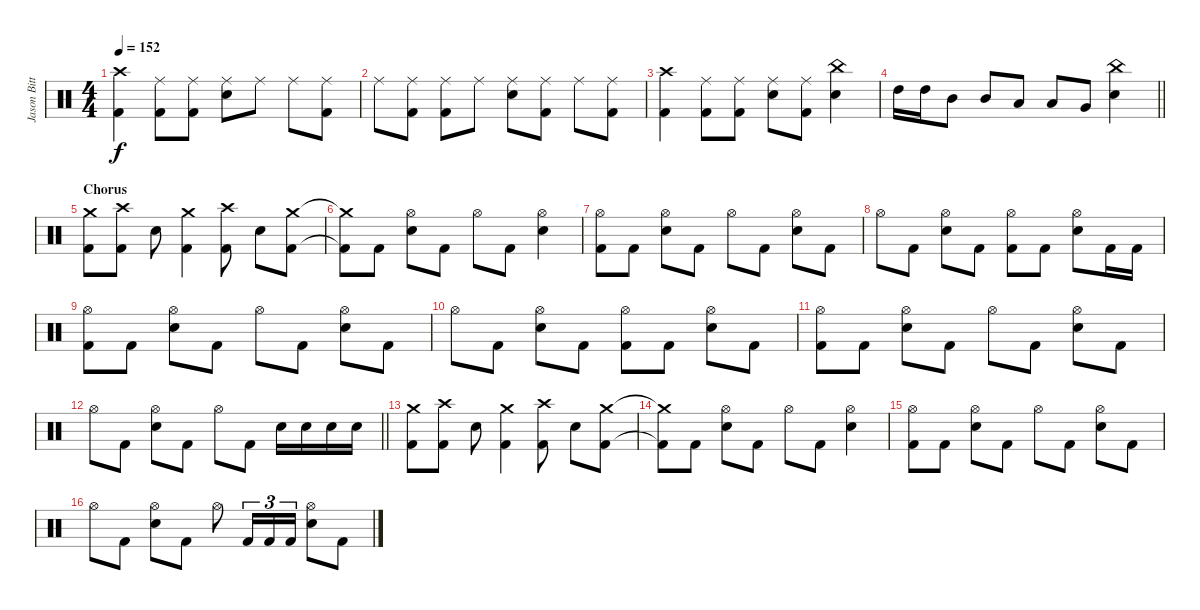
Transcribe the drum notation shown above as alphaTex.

\track ("Jason Bittner" "Jason Bitt") {instrument percussion}
\staff {score}
\articulation defaults
\ts (4 4)
\tempo 152
\clef neutral
\ks c
("Crash high (hit)" "Kick (hit) 2").4{dy f} ("Ride (middle)" "Kick (hit) 2").8 ("Ride (middle)" "Kick (hit) 2").8 ("Ride (middle)" "Electric Snare (hit)").8 "Ride (middle)".8 "Ride (middle)".8 ("Ride (middle)" "Kick (hit) 2").8 |
"Ride (middle)".8 ("Ride (middle)" "Kick (hit) 2").8 ("Ride (middle)" "Kick (hit) 2").8 "Ride (middle)".8 ("Ride (middle)" "Electric Snare (hit)").8 ("Ride (middle)" "Kick (hit) 2").8 "Ride (middle)".8 ("Ride (middle)" "Kick (hit) 2").8 |
("Crash high (hit)" "Kick (hit) 2").4 ("Ride (middle)" "Kick (hit) 2").8 ("Ride (middle)" "Kick (hit) 2").8 ("Ride (middle)" "Electric Snare (hit)").8 ("Ride (middle)" "Kick (hit) 2").8 ("China (hit)" "Electric Snare (hit)").4 |
\barLineRight lightlight "High Tom (hit)".16 "High Tom (hit)".16 "Mid Tom (hit)".8 "Mid Tom (hit)".8 "Low Tom (hit)".8 "Low Tom (hit)".8 "Very Low Tom (hit)".8
("China (hit)" "Electric Snare (hit)").4 |
\section ("" "Chorus")
("Crash medium (hit)" "Kick (hit) 2").8 ("Crash high (hit)" "Kick (hit) 2").8 "Electric Snare (hit)".8 ("Crash medium (hit)" "Kick (hit) 2").4 ("Crash high (hit)" "Kick (hit) 2").8 "Electric Snare (hit)".8 ("Crash medium (hit)" "Kick (hit) 2").8 |
("Crash medium (hit)"{t} "Kick (hit) 2"{t}).8 "Kick (hit) 2".8 ("Hi-Hat (open)" "Electric Snare (hit)").8 "Kick (hit) 2".8 "Hi-Hat (open)".8 "Kick (hit) 2".8 ("Hi-Hat (open)" "Electric Snare (hit)").4 |
("Hi-Hat (open)" "Kick (hit) 2").8 "Kick (hit) 2".8 ("Hi-Hat (open)" "Electric Snare (hit)").8 "Kick (hit) 2".8 "Hi-Hat (open)".8 "Kick (hit) 2".8 ("Hi-Hat (open)" "Electric Snare (hit)").8 "Kick (hit) 2".8 |
"Hi-Hat (open)".8 "Kick (hit) 2".8 ("Hi-Hat (open)" "Electric Snare (hit)").8 "Kick (hit) 2".8 ("Hi-Hat (open)" "Kick (hit) 2").8 "Kick (hit) 2".8 ("Hi-Hat (open)" "Electric Snare (hit)").8 "Kick (hit) 2".16 "Kick (hit) 2".16 |
("Hi-Hat (open)" "Kick (hit) 2").8 "Kick (hit) 2".8 ("Hi-Hat (open)" "Electric Snare (hit)").8 "Kick (hit) 2".8 "Hi-Hat (open)".8 "Kick (hit) 2".8 ("Hi-Hat (open)" "Electric Snare (hit)").8 "Kick (hit) 2".8 |
"Hi-Hat (open)".8 "Kick (hit) 2".8 ("Hi-Hat (open)" "Electric Snare (hit)").8 "Kick (hit) 2".8 ("Hi-Hat (open)" "Kick (hit) 2").8 "Kick (hit) 2".8 ("Hi-Hat (open)" "Electric Snare (hit)").8 "Kick (hit) 2".8 |
("Hi-Hat (open)" "Kick (hit) 2").8 "Kick (hit) 2".8 ("Hi-Hat (open)" "Electric Snare (hit)").8 "Kick (hit) 2".8 "Hi-Hat (open)".8 "Kick (hit) 2".8 ("Hi-Hat (open)" "Electric Snare (hit)").8 "Kick (hit) 2".8 |
\barLineRight lightlight "Hi-Hat (open)".8 "Kick (hit) 2".8
("Hi-Hat (open)" "Electric Snare (hit)").8 "Kick (hit) 2".8 "Hi-Hat (open)".8 "Kick (hit) 2".8 "Electric Snare (hit)".16 "Electric Snare (hit)".16 "Electric Snare (hit)".16 "Electric Snare (hit)".16 |
("Crash medium (hit)" "Kick (hit) 2").8 ("Crash high (hit)" "Kick (hit) 2").8 "Electric Snare (hit)".8 ("Crash medium (hit)" "Kick (hit) 2").4 ("Crash high (hit)" "Kick (hit) 2").8 "Electric Snare (hit)".8 ("Crash medium (hit)" "Kick (hit) 2").8 |
("Crash medium (hit)"{t} "Kick (hit) 2"{t}).8 "Kick (hit) 2".8 ("Hi-Hat (open)" "Electric Snare (hit)").8 "Kick (hit) 2".8 "Hi-Hat (open)".8 "Kick (hit) 2".8 ("Hi-Hat (open)" "Electric Snare (hit)").4 |
("Hi-Hat (open)" "Kick (hit) 2").8 "Kick (hit) 2".8 ("Hi-Hat (open)" "Electric Snare (hit)").8 "Kick (hit) 2".8 "Hi-Hat (open)".8 "Kick (hit) 2".8 ("Hi-Hat (open)" "Electric Snare (hit)").8 "Kick (hit) 2".8 |
"Hi-Hat (open)".8 "Kick (hit) 2".8 ("Hi-Hat (open)" "Electric Snare (hit)").8 "Kick (hit) 2".8 "Hi-Hat (open)".8 "Kick (hit) 2".16{tu (3 2)} "Kick (hit) 2".16{tu (3 2)} "Kick (hit) 2".16{tu (3 2)} ("Hi-Hat (open)" "Electric Snare (hit)").8 "Kick (hit) 2".8
